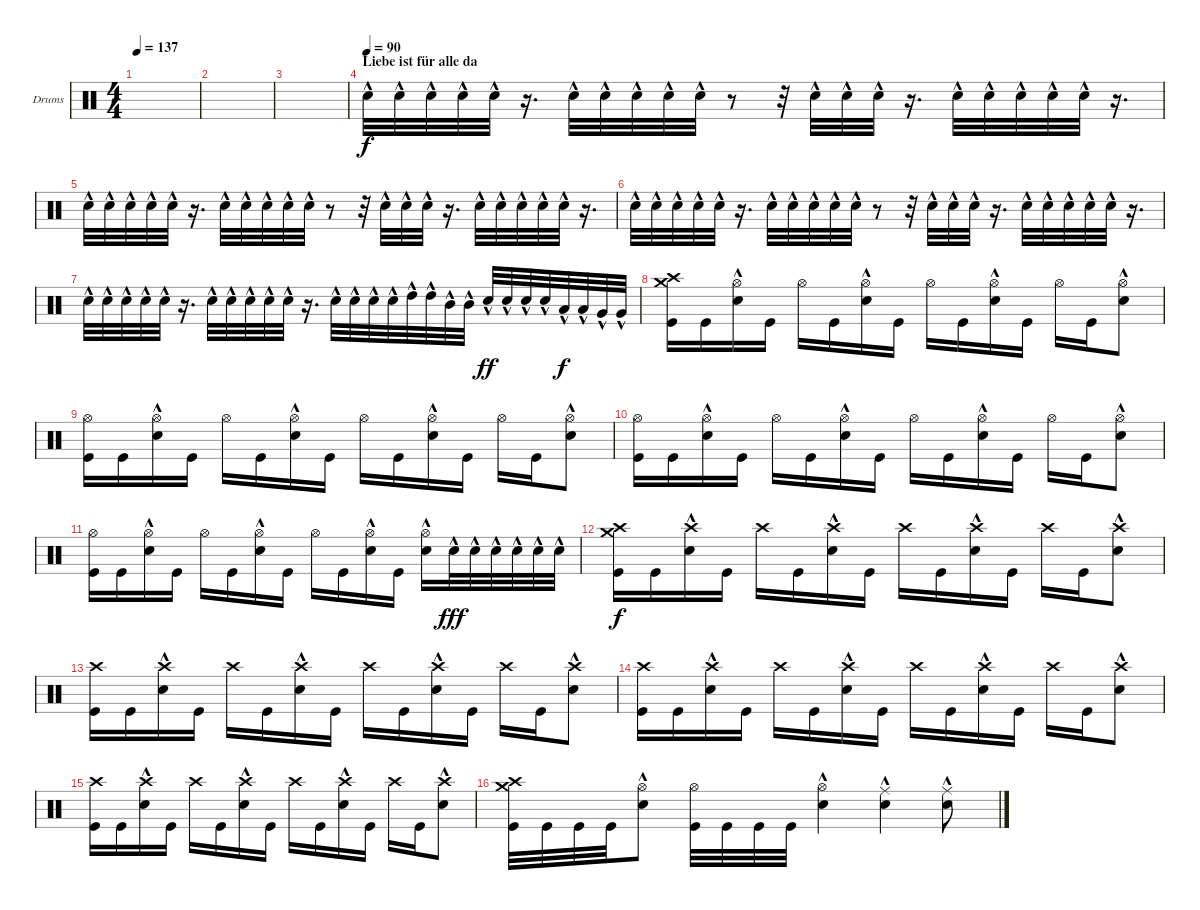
\bracketExtendMode groupsimilarinstruments
\firstSystemTrackNameOrientation horizontal
\otherSystemsTrackNameOrientation horizontal
\track ("Drumkit (Christoph)" "Drums") {instrument percussion}
\staff {score}
\articulation defaults
\ts (4 4)
\tempo 137
\clef neutral
\ks c
|
|
|
\section ("" "Liebe ist für alle da")
\tempo (90)
"Snare (hit) 2"{hac}.32{dy f} "Snare (hit) 2"{hac}.32 "Snare (hit) 2"{hac}.32 "Snare (hit) 2"{hac}.32 "Snare (hit) 2"{hac}.32 r.16{d} "Snare (hit) 2"{hac}.32 "Snare (hit) 2"{hac}.32 "Snare (hit) 2"{hac}.32 "Snare (hit) 2"{hac}.32 "Snare (hit) 2"{hac}.32 r.8 r.32 "Snare (hit) 2"{hac}.32 "Snare (hit) 2"{hac}.32 "Snare (hit) 2"{hac}.32 r.16{d} "Snare (hit) 2"{hac}.32 "Snare (hit) 2"{hac}.32 "Snare (hit) 2"{hac}.32 "Snare (hit) 2"{hac}.32 "Snare (hit) 2"{hac}.32 r.16{d} |
"Snare (hit) 2"{hac}.32 "Snare (hit) 2"{hac}.32 "Snare (hit) 2"{hac}.32 "Snare (hit) 2"{hac}.32 "Snare (hit) 2"{hac}.32 r.16{d} "Snare (hit) 2"{hac}.32 "Snare (hit) 2"{hac}.32 "Snare (hit) 2"{hac}.32 "Snare (hit) 2"{hac}.32 "Snare (hit) 2"{hac}.32 r.8 r.32 "Snare (hit) 2"{hac}.32 "Snare (hit) 2"{hac}.32 "Snare (hit) 2"{hac}.32 r.16{d} "Snare (hit) 2"{hac}.32 "Snare (hit) 2"{hac}.32 "Snare (hit) 2"{hac}.32 "Snare (hit) 2"{hac}.32 "Snare (hit) 2"{hac}.32 r.16{d} |
"Snare (hit) 2"{hac}.32 "Snare (hit) 2"{hac}.32 "Snare (hit) 2"{hac}.32 "Snare (hit) 2"{hac}.32 "Snare (hit) 2"{hac}.32 r.16{d} "Snare (hit) 2"{hac}.32 "Snare (hit) 2"{hac}.32 "Snare (hit) 2"{hac}.32 "Snare (hit) 2"{hac}.32 "Snare (hit) 2"{hac}.32 r.8 r.32 "Snare (hit) 2"{hac}.32 "Snare (hit) 2"{hac}.32 "Snare (hit) 2"{hac}.32 r.16{d} "Snare (hit) 2"{hac}.32 "Snare (hit) 2"{hac}.32 "Snare (hit) 2"{hac}.32 "Snare (hit) 2"{hac}.32 "Snare (hit) 2"{hac}.32 r.16{d} |
"Snare (hit) 2"{hac}.32 "Snare (hit) 2"{hac}.32 "Snare (hit) 2"{hac}.32 "Snare (hit) 2"{hac}.32 "Snare (hit) 2"{hac}.32 r.16{d} "Snare (hit) 2"{hac}.32 "Snare (hit) 2"{hac}.32 "Snare (hit) 2"{hac}.32 "Snare (hit) 2"{hac}.32 "Snare (hit) 2"{hac}.32 r.16{d} "Snare (hit) 2"{hac}.32 "Snare (hit) 2"{hac}.32 "Snare (hit) 2"{hac}.32 "Snare (hit) 2"{hac}.32 "High Tom (hit)"{hac}.32 "High Tom (hit)"{hac}.32 "Mid Tom (hit)"{hac}.32 "Mid Tom (hit)"{hac}.32 "Snare (hit) 2"{hac}.32{dy ff} "Snare (hit) 2"{hac}.32 "Snare (hit) 2"{hac}.32 "Snare (hit) 2"{hac}.32 "Low Tom (hit)"{hac}.32{dy f} "Low Tom (hit)"{hac}.32 "Very Low Tom (hit)"{hac}.32 "Very Low Tom (hit)"{hac}.32 |
("Crash medium (hit)" "Kick (hit)" "Crash high (hit)").16 "Kick (hit)".16 ("Hi-Hat (open)" "Snare (hit) 2"{hac}).16 "Kick (hit)".16 "Hi-Hat (open)".16 "Kick (hit)".16 ("Hi-Hat (open)" "Snare (hit) 2"{hac}).16 "Kick (hit)".16 "Hi-Hat (open)".16 "Kick (hit)".16 ("Hi-Hat (open)" "Snare (hit) 2"{hac}).16 "Kick (hit)".16 "Hi-Hat (open)".16 "Kick (hit)".16 ("Hi-Hat (open)" "Snare (hit) 2"{hac}).8 |
("Hi-Hat (open)" "Kick (hit)").16 "Kick (hit)".16 ("Hi-Hat (open)" "Snare (hit) 2"{hac}).16 "Kick (hit)".16 "Hi-Hat (open)".16 "Kick (hit)".16 ("Hi-Hat (open)" "Snare (hit) 2"{hac}).16 "Kick (hit)".16 "Hi-Hat (open)".16 "Kick (hit)".16 ("Hi-Hat (open)" "Snare (hit) 2"{hac}).16 "Kick (hit)".16 "Hi-Hat (open)".16 "Kick (hit)".16 ("Hi-Hat (open)" "Snare (hit) 2"{hac}).8 |
("Hi-Hat (open)" "Kick (hit)").16 "Kick (hit)".16 ("Hi-Hat (open)" "Snare (hit) 2"{hac}).16 "Kick (hit)".16 "Hi-Hat (open)".16 "Kick (hit)".16 ("Hi-Hat (open)" "Snare (hit) 2"{hac}).16 "Kick (hit)".16 "Hi-Hat (open)".16 "Kick (hit)".16 ("Hi-Hat (open)" "Snare (hit) 2"{hac}).16 "Kick (hit)".16 "Hi-Hat (open)".16 "Kick (hit)".16 ("Hi-Hat (open)" "Snare (hit) 2"{hac}).8 |
("Hi-Hat (open)" "Kick (hit)").16 "Kick (hit)".16 ("Hi-Hat (open)" "Snare (hit) 2"{hac}).16 "Kick (hit)".16 "Hi-Hat (open)".16 "Kick (hit)".16 ("Hi-Hat (open)" "Snare (hit) 2"{hac}).16 "Kick (hit)".16 "Hi-Hat (open)".16 "Kick (hit)".16 ("Hi-Hat (open)" "Snare (hit) 2"{hac}).16 "Kick (hit)".16 ("Hi-Hat (open)" "Snare (hit) 2"{hac}).16 "Snare (hit) 2"{hac}.32{dy fff} "Snare (hit) 2"{hac}.32 "Snare (hit) 2"{hac}.32 "Snare (hit) 2"{hac}.32 "Snare (hit) 2"{hac}.32 "Snare (hit) 2"{hac}.32 |
("Crash medium (hit)" "Kick (hit)" "Crash high (hit)").16{dy f} "Kick (hit)".16 ("Crash high (hit)" "Snare (hit) 2"{hac}).16 "Kick (hit)".16 "Crash high (hit)".16 "Kick (hit)".16 ("Crash high (hit)" "Snare (hit) 2"{hac}).16 "Kick (hit)".16 "Crash high (hit)".16 "Kick (hit)".16 ("Crash high (hit)" "Snare (hit) 2"{hac}).16 "Kick (hit)".16 "Crash high (hit)".16 "Kick (hit)".16 ("Crash high (hit)" "Snare (hit) 2"{hac}).8 |
("Crash high (hit)" "Kick (hit)").16 "Kick (hit)".16 ("Crash high (hit)" "Snare (hit) 2"{hac}).16 "Kick (hit)".16 "Crash high (hit)".16 "Kick (hit)".16 ("Crash high (hit)" "Snare (hit) 2"{hac}).16 "Kick (hit)".16 "Crash high (hit)".16 "Kick (hit)".16 ("Crash high (hit)" "Snare (hit) 2"{hac}).16 "Kick (hit)".16 "Crash high (hit)".16 "Kick (hit)".16 ("Crash high (hit)" "Snare (hit) 2"{hac}).8 |
("Crash high (hit)" "Kick (hit)").16 "Kick (hit)".16 ("Crash high (hit)" "Snare (hit) 2"{hac}).16 "Kick (hit)".16 "Crash high (hit)".16 "Kick (hit)".16 ("Crash high (hit)" "Snare (hit) 2"{hac}).16 "Kick (hit)".16 "Crash high (hit)".16 "Kick (hit)".16 ("Crash high (hit)" "Snare (hit) 2"{hac}).16 "Kick (hit)".16 "Crash high (hit)".16 "Kick (hit)".16 ("Crash high (hit)" "Snare (hit) 2"{hac}).8 |
("Crash high (hit)" "Kick (hit)").16 "Kick (hit)".16 ("Crash high (hit)" "Snare (hit) 2"{hac}).16 "Kick (hit)".16 "Crash high (hit)".16 "Kick (hit)".16 ("Crash high (hit)" "Snare (hit) 2"{hac}).16 "Kick (hit)".16 "Crash high (hit)".16 "Kick (hit)".16 ("Crash high (hit)" "Snare (hit) 2"{hac}).16 "Kick (hit)".16 "Crash high (hit)".16 "Kick (hit)".16 ("Crash high (hit)" "Snare (hit) 2"{hac}).8 |
("Crash medium (hit)" "Kick (hit)" "Crash high (hit)").32 "Kick (hit)".32 "Kick (hit)".32 "Kick (hit)".32 ("Hi-Hat (open)" "Snare (hit) 2"{hac}).8 ("Hi-Hat (open)" "Kick (hit)").32 "Kick (hit)".32 "Kick (hit)".32 "Kick (hit)".32 ("Hi-Hat (open)" "Snare (hit) 2"{hac}).4 ("Ride (middle)" "Snare (hit) 2"{hac}).4 ("Ride (middle)" "Snare (hit) 2"{hac}).8
